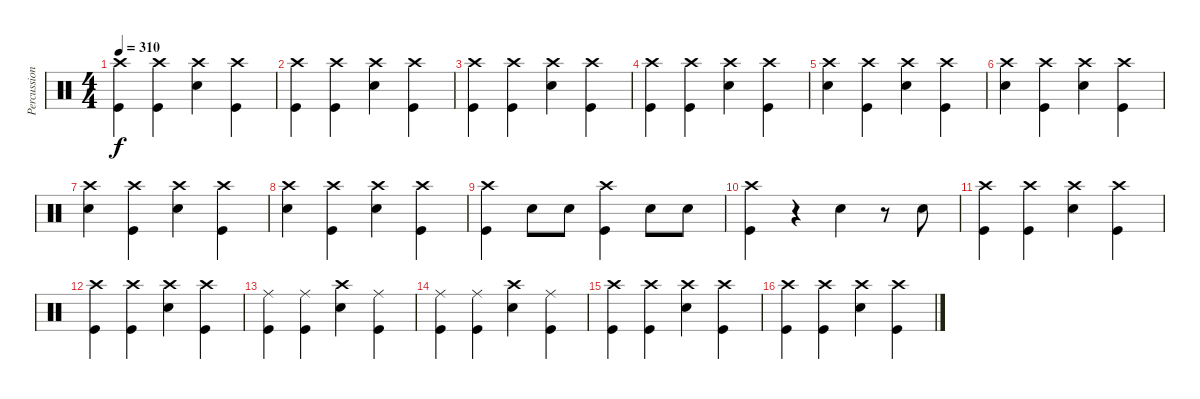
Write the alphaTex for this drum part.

\track ("Percussion" "Percussion") {instrument percussion}
\staff {score}
\articulation defaults
\ts (4 4)
\tempo 310
\clef neutral
\ks c
("Crash high (hit)" "Kick (hit)").4{dy f} ("Crash high (hit)" "Kick (hit)").4 ("Crash high (hit)" "Electric Snare (hit)").4 ("Crash high (hit)" "Kick (hit)").4 |
("Crash high (hit)" "Kick (hit)").4 ("Crash high (hit)" "Kick (hit)").4 ("Crash high (hit)" "Electric Snare (hit)").4 ("Crash high (hit)" "Kick (hit)").4 |
("Crash high (hit)" "Kick (hit)").4 ("Crash high (hit)" "Kick (hit)").4 ("Crash high (hit)" "Electric Snare (hit)").4 ("Crash high (hit)" "Kick (hit)").4 |
("Crash high (hit)" "Kick (hit)").4 ("Crash high (hit)" "Kick (hit)").4 ("Crash high (hit)" "Electric Snare (hit)").4 ("Crash high (hit)" "Kick (hit)").4 |
("Crash high (hit)" "Electric Snare (hit)").4 ("Crash high (hit)" "Kick (hit)").4 ("Crash high (hit)" "Electric Snare (hit)").4 ("Crash high (hit)" "Kick (hit)").4 |
("Crash high (hit)" "Electric Snare (hit)").4 ("Crash high (hit)" "Kick (hit)").4 ("Crash high (hit)" "Electric Snare (hit)").4 ("Crash high (hit)" "Kick (hit)").4 |
("Crash high (hit)" "Electric Snare (hit)").4 ("Crash high (hit)" "Kick (hit)").4 ("Crash high (hit)" "Electric Snare (hit)").4 ("Crash high (hit)" "Kick (hit)").4 |
("Crash high (hit)" "Electric Snare (hit)").4 ("Crash high (hit)" "Kick (hit)").4 ("Crash high (hit)" "Electric Snare (hit)").4 ("Crash high (hit)" "Kick (hit)").4 |
("Crash high (hit)" "Kick (hit)").4 "Electric Snare (hit)".8 "Electric Snare (hit)".8 ("Crash high (hit)" "Kick (hit)").4 "Electric Snare (hit)".8 "Electric Snare (hit)".8 |
("Crash high (hit)" "Kick (hit)").4 r.4 "Electric Snare (hit)".4 r.8 "Electric Snare (hit)".8 |
("Crash high (hit)" "Kick (hit)").4 ("Crash high (hit)" "Kick (hit)").4 ("Crash high (hit)" "Electric Snare (hit)").4 ("Crash high (hit)" "Kick (hit)").4 |
("Crash high (hit)" "Kick (hit)").4 ("Crash high (hit)" "Kick (hit)").4 ("Crash high (hit)" "Electric Snare (hit)").4 ("Crash high (hit)" "Kick (hit)").4 |
("Ride (middle)" "Kick (hit)").4 ("Ride (middle)" "Kick (hit)").4 ("Crash high (hit)" "Electric Snare (hit)").4 ("Ride (middle)" "Kick (hit)").4 |
("Ride (middle)" "Kick (hit)").4 ("Ride (middle)" "Kick (hit)").4 ("Crash high (hit)" "Electric Snare (hit)").4 ("Ride (middle)" "Kick (hit)").4 |
("Crash high (hit)" "Kick (hit)").4 ("Crash high (hit)" "Kick (hit)").4 ("Crash high (hit)" "Electric Snare (hit)").4 ("Crash high (hit)" "Kick (hit)").4 |
("Crash high (hit)" "Kick (hit)").4 ("Crash high (hit)" "Kick (hit)").4 ("Crash high (hit)" "Electric Snare (hit)").4 ("Crash high (hit)" "Kick (hit)").4
